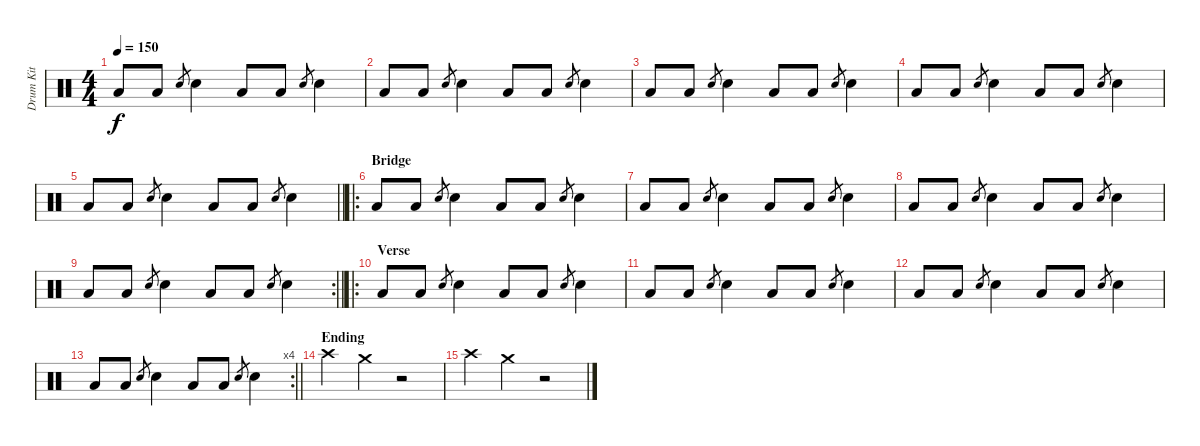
\track ("Drum Kit" "Drum Kit") {instrument percussion}
\staff {score}
\articulation defaults
\ts (4 4)
\tempo 150
\clef neutral
\ks c "Low Tom (hit)".8{dy f} "Low Tom (hit)".8 "Snare (hit)"{x}.8{gr} "Snare (hit) 2".4 "Low Tom (hit)".8 "Low Tom (hit)".8 "Snare (hit)"{x}.8{gr} "Snare (hit) 2".4
|
"Low Tom (hit)".8 "Low Tom (hit)".8 "Snare (hit)"{x}.8{gr} "Snare (hit) 2".4 "Low Tom (hit)".8 "Low Tom (hit)".8 "Snare (hit)"{x}.8{gr} "Snare (hit) 2".4 |
"Low Tom (hit)".8 "Low Tom (hit)".8 "Snare (hit)"{x}.8{gr} "Snare (hit) 2".4 "Low Tom (hit)".8 "Low Tom (hit)".8 "Snare (hit)"{x}.8{gr} "Snare (hit) 2".4 |
"Low Tom (hit)".8 "Low Tom (hit)".8 "Snare (hit)"{x}.8{gr} "Snare (hit) 2".4 "Low Tom (hit)".8 "Low Tom (hit)".8 "Snare (hit)"{x}.8{gr} "Snare (hit) 2".4 |
\barLineRight lightlight "Low Tom (hit)".8 "Low Tom (hit)".8 "Snare (hit)"{x}.8{gr} "Snare (hit) 2".4 "Low Tom (hit)".8 "Low Tom (hit)".8 "Snare (hit)"{x}.8{gr} "Snare (hit) 2".4
|
\ro
\section ("" "Bridge")
"Low Tom (hit)".8 "Low Tom (hit)".8 "Snare (hit)"{x}.8{gr} "Snare (hit) 2".4 "Low Tom (hit)".8 "Low Tom (hit)".8 "Snare (hit)"{x}.8{gr} "Snare (hit) 2".4 |
"Low Tom (hit)".8 "Low Tom (hit)".8 "Snare (hit)"{x}.8{gr} "Snare (hit) 2".4 "Low Tom (hit)".8 "Low Tom (hit)".8 "Snare (hit)"{x}.8{gr} "Snare (hit) 2".4 |
"Low Tom (hit)".8 "Low Tom (hit)".8 "Snare (hit)"{x}.8{gr} "Snare (hit) 2".4 "Low Tom (hit)".8 "Low Tom (hit)".8 "Snare (hit)"{x}.8{gr} "Snare (hit) 2".4 |
\rc 2
\barLineRight lightlight "Low Tom (hit)".8 "Low Tom (hit)".8 "Snare (hit)"{x}.8{gr} "Snare (hit) 2".4 "Low Tom (hit)".8 "Low Tom (hit)".8 "Snare (hit)"{x}.8{gr} "Snare (hit) 2".4
|
\ro
\section ("" "Verse")
"Low Tom (hit)".8 "Low Tom (hit)".8 "Snare (hit)"{x}.8{gr} "Snare (hit) 2".4 "Low Tom (hit)".8 "Low Tom (hit)".8 "Snare (hit)"{x}.8{gr} "Snare (hit) 2".4 |
"Low Tom (hit)".8 "Low Tom (hit)".8 "Snare (hit)"{x}.8{gr} "Snare (hit) 2".4 "Low Tom (hit)".8 "Low Tom (hit)".8 "Snare (hit)"{x}.8{gr} "Snare (hit) 2".4 |
"Low Tom (hit)".8 "Low Tom (hit)".8 "Snare (hit)"{x}.8{gr} "Snare (hit) 2".4 "Low Tom (hit)".8 "Low Tom (hit)".8 "Snare (hit)"{x}.8{gr} "Snare (hit) 2".4 |
\rc 4
\barLineRight lightlight "Low Tom (hit)".8 "Low Tom (hit)".8 "Snare (hit)"{x}.8{gr} "Snare (hit) 2".4 "Low Tom (hit)".8 "Low Tom (hit)".8 "Snare (hit)"{x}.8{gr} "Snare (hit) 2".4
|
\section ("" "Ending")
"Crash high (hit)".4 "Crash medium (hit)".4 r.2 |
"Crash high (hit)".4 "Crash medium (hit)".4 r.2
